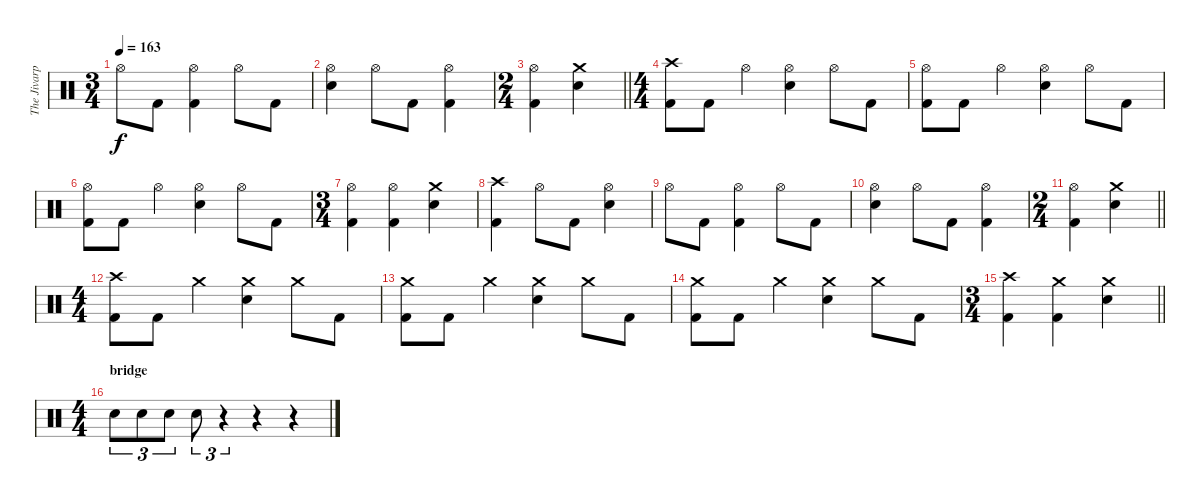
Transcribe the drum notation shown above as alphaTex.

\track ("The Jivarp" "The Jivarp") {instrument percussion}
\staff {score}
\articulation defaults
\ts (3 4)
\tempo 163
\clef neutral
\ks c "Hi-Hat (open)".8{dy f} "Kick (hit) 2".8
("Hi-Hat (open)" "Kick (hit) 2").4 "Hi-Hat (open)".8 "Kick (hit) 2".8 |
("Hi-Hat (open)" "Electric Snare (hit)").4 "Hi-Hat (open)".8 "Kick (hit) 2".8 ("Hi-Hat (open)" "Kick (hit) 2").4 |
\ts (2 4)
\barLineRight lightlight
("Hi-Hat (open)" "Kick (hit) 2").4 ("Crash medium (hit)" "Electric Snare (hit)").4 |
\ts (4 4)
("Crash high (hit)" "Kick (hit) 2").8 "Kick (hit) 2".8 "Hi-Hat (open)".4 ("Hi-Hat (open)" "Electric Snare (hit)").4 "Hi-Hat (open)".8 "Kick (hit) 2".8 |
("Hi-Hat (open)" "Kick (hit) 2").8 "Kick (hit) 2".8 "Hi-Hat (open)".4 ("Hi-Hat (open)" "Electric Snare (hit)").4 "Hi-Hat (open)".8 "Kick (hit) 2".8 |
("Hi-Hat (open)" "Kick (hit) 2").8 "Kick (hit) 2".8 "Hi-Hat (open)".4 ("Hi-Hat (open)" "Electric Snare (hit)").4 "Hi-Hat (open)".8 "Kick (hit) 2".8 |
\ts (3 4)
("Hi-Hat (open)" "Kick (hit) 2").4 ("Hi-Hat (open)" "Kick (hit) 2").4 ("Crash medium (hit)" "Electric Snare (hit)").4 |
("Crash high (hit)" "Kick (hit) 2").4 "Hi-Hat (open)".8 "Kick (hit) 2".8 ("Hi-Hat (open)" "Electric Snare (hit)").4 |
"Hi-Hat (open)".8 "Kick (hit) 2".8 ("Hi-Hat (open)" "Kick (hit) 2").4 "Hi-Hat (open)".8 "Kick (hit) 2".8 |
("Hi-Hat (open)" "Electric Snare (hit)").4 "Hi-Hat (open)".8 "Kick (hit) 2".8 ("Hi-Hat (open)" "Kick (hit) 2").4 |
\ts (2 4)
\barLineRight lightlight
("Hi-Hat (open)" "Kick (hit) 2").4 ("Crash medium (hit)" "Electric Snare (hit)").4 |
\ts (4 4)
("Crash high (hit)" "Kick (hit) 2").8 "Kick (hit) 2".8 "Crash medium (hit)".4 ("Crash medium (hit)" "Electric Snare (hit)").4 "Crash medium (hit)".8 "Kick (hit) 2".8 |
("Crash medium (hit)" "Kick (hit) 2").8 "Kick (hit) 2".8 "Crash medium (hit)".4 ("Crash medium (hit)" "Electric Snare (hit)").4 "Crash medium (hit)".8 "Kick (hit) 2".8 |
("Crash medium (hit)" "Kick (hit) 2").8 "Kick (hit) 2".8 "Crash medium (hit)".4 ("Crash medium (hit)" "Electric Snare (hit)").4 "Crash medium (hit)".8 "Kick (hit) 2".8 |
\ts (3 4)
\barLineRight lightlight
("Crash high (hit)" "Kick (hit) 2").4 ("Crash medium (hit)" "Kick (hit) 2").4 ("Crash medium (hit)" "Electric Snare (hit)").4 |
\ts (4 4)
\section ("" "bridge")
"Electric Snare (hit)".8{tu (3 2)} "Electric Snare (hit)".8{tu (3 2)} "Electric Snare (hit)".8{tu (3 2)} "Electric Snare (hit)".8{tu (3 2)} r.4{tu (3 2)} r.4 r.4
